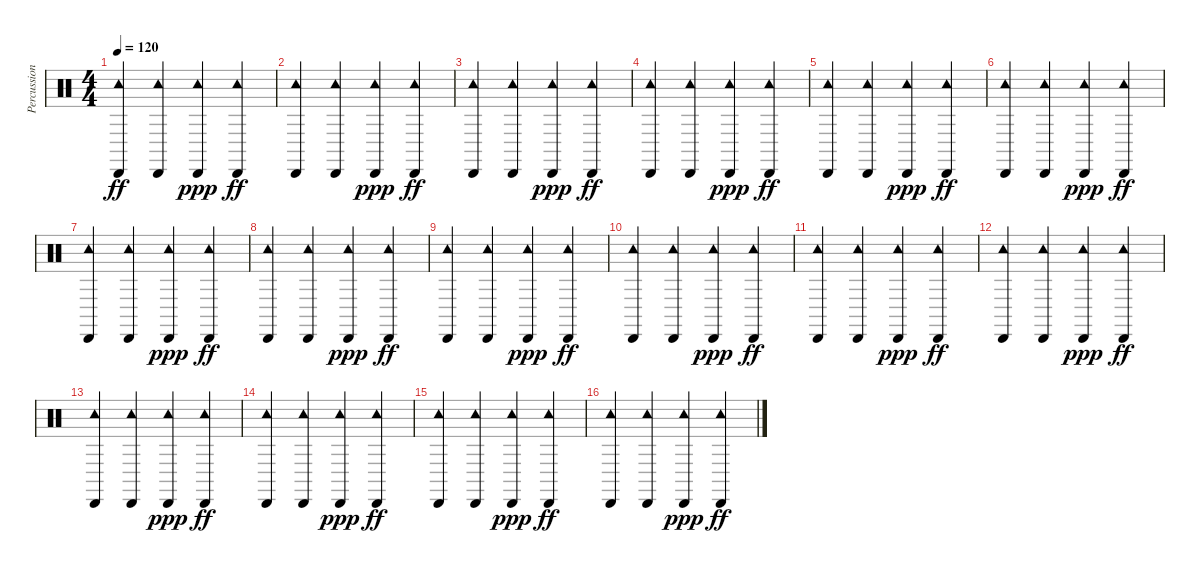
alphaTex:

\track ("Percussion" "Percussion") {instrument percussion}
\staff {score}
\articulation defaults
\ts (4 4)
\tempo 120
\clef neutral
\ks c
("Cabasa (hit)" "Tambourine (hit)").4{dy ff} ("Cabasa (hit)" "Tambourine (hit)").4 ("Cabasa (hit)" "Tambourine (hit)").4{dy ppp} ("Cabasa (hit)" "Tambourine (hit)").4{dy ff} |
("Cabasa (hit)" "Tambourine (hit)").4 ("Cabasa (hit)" "Tambourine (hit)").4 ("Cabasa (hit)" "Tambourine (hit)").4{dy ppp} ("Cabasa (hit)" "Tambourine (hit)").4{dy ff} |
("Cabasa (hit)" "Tambourine (hit)").4 ("Cabasa (hit)" "Tambourine (hit)").4 ("Cabasa (hit)" "Tambourine (hit)").4{dy ppp} ("Cabasa (hit)" "Tambourine (hit)").4{dy ff} |
("Cabasa (hit)" "Tambourine (hit)").4 ("Cabasa (hit)" "Tambourine (hit)").4 ("Cabasa (hit)" "Tambourine (hit)").4{dy ppp} ("Cabasa (hit)" "Tambourine (hit)").4{dy ff} |
("Cabasa (hit)" "Tambourine (hit)").4 ("Cabasa (hit)" "Tambourine (hit)").4 ("Cabasa (hit)" "Tambourine (hit)").4{dy ppp} ("Cabasa (hit)" "Tambourine (hit)").4{dy ff} |
("Cabasa (hit)" "Tambourine (hit)").4 ("Cabasa (hit)" "Tambourine (hit)").4 ("Cabasa (hit)" "Tambourine (hit)").4{dy ppp} ("Cabasa (hit)" "Tambourine (hit)").4{dy ff} |
("Cabasa (hit)" "Tambourine (hit)").4 ("Cabasa (hit)" "Tambourine (hit)").4 ("Cabasa (hit)" "Tambourine (hit)").4{dy ppp} ("Cabasa (hit)" "Tambourine (hit)").4{dy ff} |
("Cabasa (hit)" "Tambourine (hit)").4 ("Cabasa (hit)" "Tambourine (hit)").4 ("Cabasa (hit)" "Tambourine (hit)").4{dy ppp} ("Cabasa (hit)" "Tambourine (hit)").4{dy ff} |
("Cabasa (hit)" "Tambourine (hit)").4 ("Cabasa (hit)" "Tambourine (hit)").4 ("Cabasa (hit)" "Tambourine (hit)").4{dy ppp} ("Cabasa (hit)" "Tambourine (hit)").4{dy ff} |
("Cabasa (hit)" "Tambourine (hit)").4 ("Cabasa (hit)" "Tambourine (hit)").4 ("Cabasa (hit)" "Tambourine (hit)").4{dy ppp} ("Cabasa (hit)" "Tambourine (hit)").4{dy ff} |
("Cabasa (hit)" "Tambourine (hit)").4 ("Cabasa (hit)" "Tambourine (hit)").4 ("Cabasa (hit)" "Tambourine (hit)").4{dy ppp} ("Cabasa (hit)" "Tambourine (hit)").4{dy ff} |
("Cabasa (hit)" "Tambourine (hit)").4 ("Cabasa (hit)" "Tambourine (hit)").4 ("Cabasa (hit)" "Tambourine (hit)").4{dy ppp} ("Cabasa (hit)" "Tambourine (hit)").4{dy ff} |
("Cabasa (hit)" "Tambourine (hit)").4 ("Cabasa (hit)" "Tambourine (hit)").4 ("Cabasa (hit)" "Tambourine (hit)").4{dy ppp} ("Cabasa (hit)" "Tambourine (hit)").4{dy ff} |
("Cabasa (hit)" "Tambourine (hit)").4 ("Cabasa (hit)" "Tambourine (hit)").4 ("Cabasa (hit)" "Tambourine (hit)").4{dy ppp} ("Cabasa (hit)" "Tambourine (hit)").4{dy ff} |
("Cabasa (hit)" "Tambourine (hit)").4 ("Cabasa (hit)" "Tambourine (hit)").4 ("Cabasa (hit)" "Tambourine (hit)").4{dy ppp} ("Cabasa (hit)" "Tambourine (hit)").4{dy ff} |
("Cabasa (hit)" "Tambourine (hit)").4 ("Cabasa (hit)" "Tambourine (hit)").4 ("Cabasa (hit)" "Tambourine (hit)").4{dy ppp} ("Cabasa (hit)" "Tambourine (hit)").4{dy ff}
